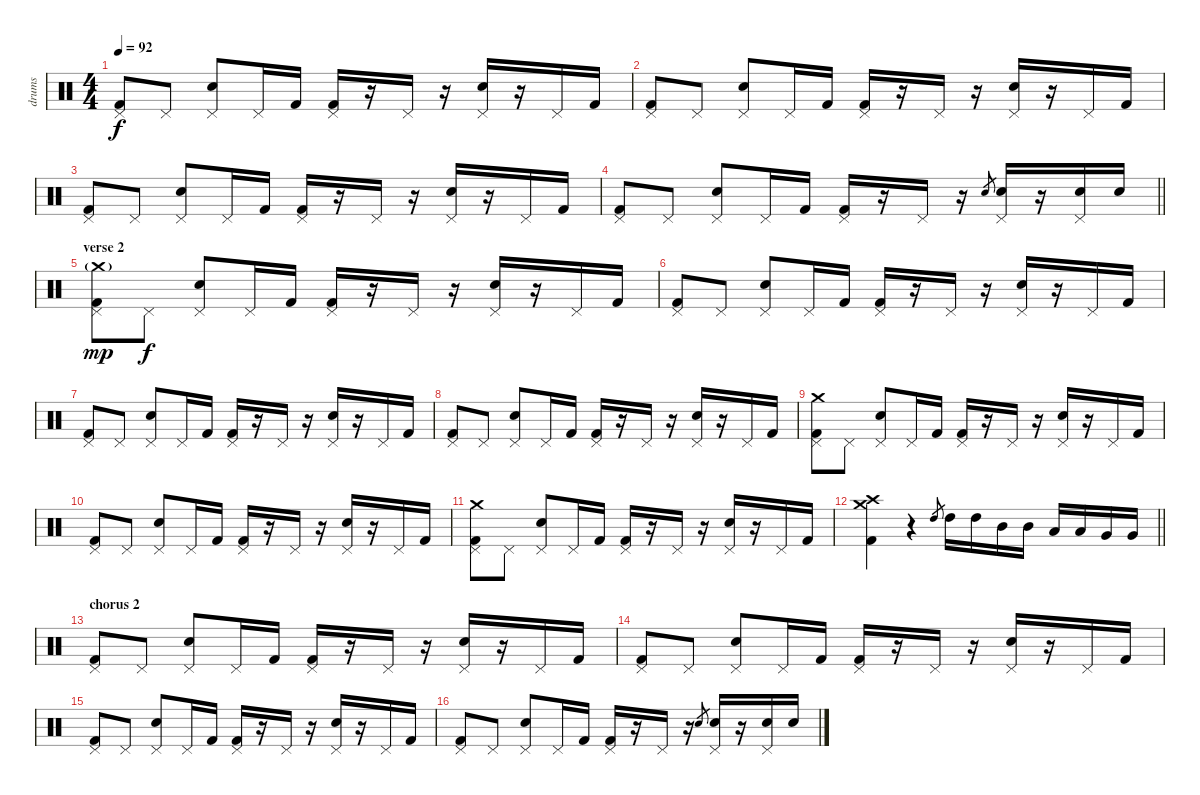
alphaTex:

\track ("drums" "drums") {instrument percussion}
\staff {score}
\articulation defaults
\ts (4 4)
\tempo 92
\clef neutral
\ks c
("Kick (hit) 2" "Pedal Hi-Hat (hit)").8{dy f} "Pedal Hi-Hat (hit)".8 ("Electric Snare (hit)" "Pedal Hi-Hat (hit)").8 "Pedal Hi-Hat (hit)".16 "Kick (hit) 2".16 ("Kick (hit) 2" "Pedal Hi-Hat (hit)").16 r.16 "Pedal Hi-Hat (hit)".16 r.16 ("Electric Snare (hit)" "Pedal Hi-Hat (hit)").16 r.16 "Pedal Hi-Hat (hit)".16 "Kick (hit) 2".16 |
("Kick (hit) 2" "Pedal Hi-Hat (hit)").8 "Pedal Hi-Hat (hit)".8 ("Electric Snare (hit)" "Pedal Hi-Hat (hit)").8 "Pedal Hi-Hat (hit)".16 "Kick (hit) 2".16 ("Kick (hit) 2" "Pedal Hi-Hat (hit)").16 r.16 "Pedal Hi-Hat (hit)".16 r.16 ("Electric Snare (hit)" "Pedal Hi-Hat (hit)").16 r.16 "Pedal Hi-Hat (hit)".16 "Kick (hit) 2".16 |
("Kick (hit) 2" "Pedal Hi-Hat (hit)").8 "Pedal Hi-Hat (hit)".8 ("Electric Snare (hit)" "Pedal Hi-Hat (hit)").8 "Pedal Hi-Hat (hit)".16 "Kick (hit) 2".16 ("Kick (hit) 2" "Pedal Hi-Hat (hit)").16 r.16 "Pedal Hi-Hat (hit)".16 r.16 ("Electric Snare (hit)" "Pedal Hi-Hat (hit)").16 r.16 "Pedal Hi-Hat (hit)".16 "Kick (hit) 2".16 |
\barLineRight lightlight
("Kick (hit) 2" "Pedal Hi-Hat (hit)").8 "Pedal Hi-Hat (hit)".8 ("Electric Snare (hit)" "Pedal Hi-Hat (hit)").8 "Pedal Hi-Hat (hit)".16 "Kick (hit) 2".16 ("Kick (hit) 2" "Pedal Hi-Hat (hit)").16 r.16 "Pedal Hi-Hat (hit)".16 r.16 "Electric Snare (hit)".8{gr} ("Electric Snare (hit)" "Pedal Hi-Hat (hit)").16 r.16 ("Electric Snare (hit)" "Pedal Hi-Hat (hit)").16 "Electric Snare (hit)".16 |
\section ("" "verse 2")
("Kick (hit) 2" "Pedal Hi-Hat (hit)" "Crash medium (hit)"{g}).8{dy mp} "Pedal Hi-Hat (hit)".8{dy f} ("Electric Snare (hit)" "Pedal Hi-Hat (hit)").8 "Pedal Hi-Hat (hit)".16 "Kick (hit) 2".16 ("Kick (hit) 2" "Pedal Hi-Hat (hit)").16 r.16 "Pedal Hi-Hat (hit)".16 r.16 ("Electric Snare (hit)" "Pedal Hi-Hat (hit)").16 r.16 "Pedal Hi-Hat (hit)".16 "Kick (hit) 2".16 |
("Kick (hit) 2" "Pedal Hi-Hat (hit)").8 "Pedal Hi-Hat (hit)".8 ("Electric Snare (hit)" "Pedal Hi-Hat (hit)").8 "Pedal Hi-Hat (hit)".16 "Kick (hit) 2".16 ("Kick (hit) 2" "Pedal Hi-Hat (hit)").16 r.16 "Pedal Hi-Hat (hit)".16 r.16 ("Electric Snare (hit)" "Pedal Hi-Hat (hit)").16 r.16 "Pedal Hi-Hat (hit)".16 "Kick (hit) 2".16 |
("Kick (hit) 2" "Pedal Hi-Hat (hit)").8 "Pedal Hi-Hat (hit)".8 ("Electric Snare (hit)" "Pedal Hi-Hat (hit)").8 "Pedal Hi-Hat (hit)".16 "Kick (hit) 2".16 ("Kick (hit) 2" "Pedal Hi-Hat (hit)").16 r.16 "Pedal Hi-Hat (hit)".16 r.16 ("Electric Snare (hit)" "Pedal Hi-Hat (hit)").16 r.16 "Pedal Hi-Hat (hit)".16 "Kick (hit) 2".16 |
("Kick (hit) 2" "Pedal Hi-Hat (hit)").8 "Pedal Hi-Hat (hit)".8 ("Electric Snare (hit)" "Pedal Hi-Hat (hit)").8 "Pedal Hi-Hat (hit)".16 "Kick (hit) 2".16 ("Kick (hit) 2" "Pedal Hi-Hat (hit)").16 r.16 "Pedal Hi-Hat (hit)".16 r.16 ("Electric Snare (hit)" "Pedal Hi-Hat (hit)").16 r.16 "Pedal Hi-Hat (hit)".16 "Kick (hit) 2".16 |
("Kick (hit) 2" "Pedal Hi-Hat (hit)" "Crash medium (hit)").8 "Pedal Hi-Hat (hit)".8 ("Electric Snare (hit)" "Pedal Hi-Hat (hit)").8 "Pedal Hi-Hat (hit)".16 "Kick (hit) 2".16 ("Kick (hit) 2" "Pedal Hi-Hat (hit)").16 r.16 "Pedal Hi-Hat (hit)".16 r.16 ("Electric Snare (hit)" "Pedal Hi-Hat (hit)").16 r.16 "Pedal Hi-Hat (hit)".16 "Kick (hit) 2".16 |
("Kick (hit) 2" "Pedal Hi-Hat (hit)").8 "Pedal Hi-Hat (hit)".8 ("Electric Snare (hit)" "Pedal Hi-Hat (hit)").8 "Pedal Hi-Hat (hit)".16 "Kick (hit) 2".16 ("Kick (hit) 2" "Pedal Hi-Hat (hit)").16 r.16 "Pedal Hi-Hat (hit)".16 r.16 ("Electric Snare (hit)" "Pedal Hi-Hat (hit)").16 r.16 "Pedal Hi-Hat (hit)".16 "Kick (hit) 2".16 |
("Kick (hit) 2" "Pedal Hi-Hat (hit)" "Crash medium (hit)").8 "Pedal Hi-Hat (hit)".8 ("Electric Snare (hit)" "Pedal Hi-Hat (hit)").8 "Pedal Hi-Hat (hit)".16 "Kick (hit) 2".16 ("Kick (hit) 2" "Pedal Hi-Hat (hit)").16 r.16 "Pedal Hi-Hat (hit)".16 r.16 ("Electric Snare (hit)" "Pedal Hi-Hat (hit)").16 r.16 "Pedal Hi-Hat (hit)".16 "Kick (hit) 2".16 |
\barLineRight lightlight
("Kick (hit) 2" "Crash medium (hit)" "Crash high (hit)").4 r.4 "High Tom (hit)".8{gr} "High Tom (hit)".16 "High Tom (hit)".16 "Mid Tom (hit)".16 "Mid Tom (hit)".16 "Low Tom (hit)".16 "Low Tom (hit)".16 "Very Low Tom (hit)".16 "Very Low Tom (hit)".16 |
\section ("" "chorus 2")
("Kick (hit) 2" "Pedal Hi-Hat (hit)").8 "Pedal Hi-Hat (hit)".8 ("Electric Snare (hit)" "Pedal Hi-Hat (hit)").8 "Pedal Hi-Hat (hit)".16 "Kick (hit) 2".16 ("Kick (hit) 2" "Pedal Hi-Hat (hit)").16 r.16 "Pedal Hi-Hat (hit)".16 r.16 ("Electric Snare (hit)" "Pedal Hi-Hat (hit)").16 r.16 "Pedal Hi-Hat (hit)".16 "Kick (hit) 2".16 |
("Kick (hit) 2" "Pedal Hi-Hat (hit)").8 "Pedal Hi-Hat (hit)".8 ("Electric Snare (hit)" "Pedal Hi-Hat (hit)").8 "Pedal Hi-Hat (hit)".16 "Kick (hit) 2".16 ("Kick (hit) 2" "Pedal Hi-Hat (hit)").16 r.16 "Pedal Hi-Hat (hit)".16 r.16 ("Electric Snare (hit)" "Pedal Hi-Hat (hit)").16 r.16 "Pedal Hi-Hat (hit)".16 "Kick (hit) 2".16 |
("Kick (hit) 2" "Pedal Hi-Hat (hit)").8 "Pedal Hi-Hat (hit)".8 ("Electric Snare (hit)" "Pedal Hi-Hat (hit)").8 "Pedal Hi-Hat (hit)".16 "Kick (hit) 2".16 ("Kick (hit) 2" "Pedal Hi-Hat (hit)").16 r.16 "Pedal Hi-Hat (hit)".16 r.16 ("Electric Snare (hit)" "Pedal Hi-Hat (hit)").16 r.16 "Pedal Hi-Hat (hit)".16 "Kick (hit) 2".16 |
("Kick (hit) 2" "Pedal Hi-Hat (hit)").8 "Pedal Hi-Hat (hit)".8 ("Electric Snare (hit)" "Pedal Hi-Hat (hit)").8 "Pedal Hi-Hat (hit)".16 "Kick (hit) 2".16 ("Kick (hit) 2" "Pedal Hi-Hat (hit)").16 r.16 "Pedal Hi-Hat (hit)".16 r.16 "Electric Snare (hit)".8{gr} ("Electric Snare (hit)" "Pedal Hi-Hat (hit)").16 r.16 ("Electric Snare (hit)" "Pedal Hi-Hat (hit)").16 "Electric Snare (hit)".16
